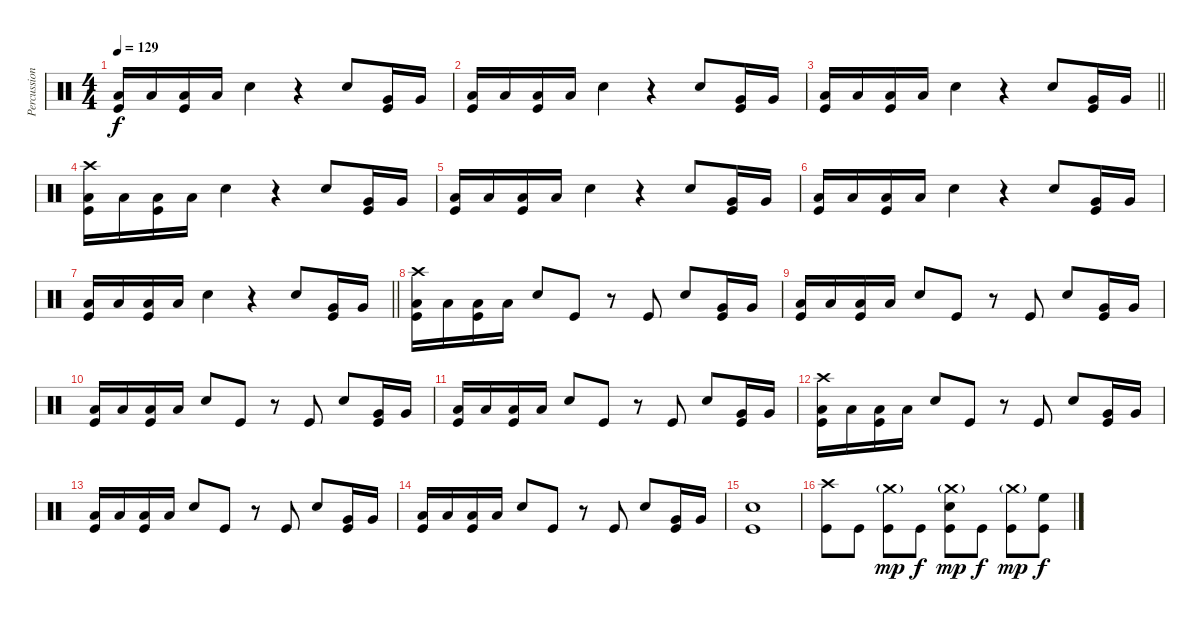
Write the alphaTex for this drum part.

\track ("Percussion" "Percussion") {instrument percussion}
\staff {score}
\articulation defaults
\ts (4 4)
\tempo 129
\clef neutral
\ks c
("Low Tom (hit)" "Kick (hit)").16{dy f} "Low Tom (hit)".16 ("Low Floor Tom (hit)" "Kick (hit)").16 "Low Floor Tom (hit)".16 "Electric Snare (hit)".4 r.4 "Electric Snare (hit)".8 ("Very Low Tom (hit)" "Kick (hit)").16 "Very Low Tom (hit)".16 |
("Low Tom (hit)" "Kick (hit)").16 "Low Tom (hit)".16 ("Low Floor Tom (hit)" "Kick (hit)").16 "Low Floor Tom (hit)".16 "Electric Snare (hit)".4 r.4 "Electric Snare (hit)".8 ("Very Low Tom (hit)" "Kick (hit)").16 "Very Low Tom (hit)".16 |
\barLineRight lightlight
("Low Tom (hit)" "Kick (hit)").16 "Low Tom (hit)".16 ("Low Floor Tom (hit)" "Kick (hit)").16 "Low Floor Tom (hit)".16 "Electric Snare (hit)".4 r.4 "Electric Snare (hit)".8 ("Very Low Tom (hit)" "Kick (hit)").16 "Very Low Tom (hit)".16 |
("Crash high (hit)" "Low Tom (hit)" "Kick (hit)").16 "Low Tom (hit)".16 ("Low Floor Tom (hit)" "Kick (hit)").16 "Low Floor Tom (hit)".16 "Electric Snare (hit)".4 r.4 "Electric Snare (hit)".8 ("Very Low Tom (hit)" "Kick (hit)").16 "Very Low Tom (hit)".16 |
("Low Tom (hit)" "Kick (hit)").16 "Low Tom (hit)".16 ("Low Floor Tom (hit)" "Kick (hit)").16 "Low Floor Tom (hit)".16 "Electric Snare (hit)".4 r.4 "Electric Snare (hit)".8 ("Very Low Tom (hit)" "Kick (hit)").16 "Very Low Tom (hit)".16 |
("Low Tom (hit)" "Kick (hit)").16 "Low Tom (hit)".16 ("Low Floor Tom (hit)" "Kick (hit)").16 "Low Floor Tom (hit)".16 "Electric Snare (hit)".4 r.4 "Electric Snare (hit)".8 ("Very Low Tom (hit)" "Kick (hit)").16 "Very Low Tom (hit)".16 |
\barLineRight lightlight
("Low Tom (hit)" "Kick (hit)").16 "Low Tom (hit)".16 ("Low Floor Tom (hit)" "Kick (hit)").16 "Low Floor Tom (hit)".16 "Electric Snare (hit)".4 r.4 "Electric Snare (hit)".8 ("Very Low Tom (hit)" "Kick (hit)").16 "Very Low Tom (hit)".16 |
("Crash high (hit)" "Low Tom (hit)" "Kick (hit)").16 "Low Tom (hit)".16 ("Low Floor Tom (hit)" "Kick (hit)").16 "Low Floor Tom (hit)".16 "Electric Snare (hit)".8 "Kick (hit)".8 r.8 "Kick (hit)".8 "Electric Snare (hit)".8 ("Very Low Tom (hit)" "Kick (hit)").16 "Very Low Tom (hit)".16 |
("Low Tom (hit)" "Kick (hit)").16 "Low Tom (hit)".16 ("Low Floor Tom (hit)" "Kick (hit)").16 "Low Floor Tom (hit)".16 "Electric Snare (hit)".8 "Kick (hit)".8 r.8 "Kick (hit)".8 "Electric Snare (hit)".8 ("Very Low Tom (hit)" "Kick (hit)").16 "Very Low Tom (hit)".16 |
("Low Tom (hit)" "Kick (hit)").16 "Low Tom (hit)".16 ("Low Floor Tom (hit)" "Kick (hit)").16 "Low Floor Tom (hit)".16 "Electric Snare (hit)".8 "Kick (hit)".8 r.8 "Kick (hit)".8 "Electric Snare (hit)".8 ("Very Low Tom (hit)" "Kick (hit)").16 "Very Low Tom (hit)".16 |
("Low Tom (hit)" "Kick (hit)").16 "Low Tom (hit)".16 ("Low Floor Tom (hit)" "Kick (hit)").16 "Low Floor Tom (hit)".16 "Electric Snare (hit)".8 "Kick (hit)".8 r.8 "Kick (hit)".8 "Electric Snare (hit)".8 ("Very Low Tom (hit)" "Kick (hit)").16 "Very Low Tom (hit)".16 |
("Crash high (hit)" "Low Tom (hit)" "Kick (hit)").16 "Low Tom (hit)".16 ("Low Floor Tom (hit)" "Kick (hit)").16 "Low Floor Tom (hit)".16 "Electric Snare (hit)".8 "Kick (hit)".8 r.8 "Kick (hit)".8 "Electric Snare (hit)".8 ("Very Low Tom (hit)" "Kick (hit)").16 "Very Low Tom (hit)".16 |
("Low Tom (hit)" "Kick (hit)").16 "Low Tom (hit)".16 ("Low Floor Tom (hit)" "Kick (hit)").16 "Low Floor Tom (hit)".16 "Electric Snare (hit)".8 "Kick (hit)".8 r.8 "Kick (hit)".8 "Electric Snare (hit)".8 ("Very Low Tom (hit)" "Kick (hit)").16 "Very Low Tom (hit)".16 |
("Low Tom (hit)" "Kick (hit)").16 "Low Tom (hit)".16 ("Low Floor Tom (hit)" "Kick (hit)").16 "Low Floor Tom (hit)".16 "Electric Snare (hit)".8 "Kick (hit)".8 r.8 "Kick (hit)".8 "Electric Snare (hit)".8 ("Very Low Tom (hit)" "Kick (hit)").16 "Very Low Tom (hit)".16 |
("Electric Snare (hit)" "Kick (hit)").1 |
("Crash high (hit)" "Kick (hit)").8 "Kick (hit)".8 ("Crash medium (hit)"{g} "Kick (hit)").8{dy mp} "Kick (hit)".8{dy f} ("Crash medium (hit)"{g} "Electric Snare (hit)" "Kick (hit)").8{dy mp} "Kick (hit)".8{dy f} ("Crash medium (hit)"{g} "Kick (hit)").8{dy mp} ("High Floor Tom (hit)" "Kick (hit)").8{dy f}
